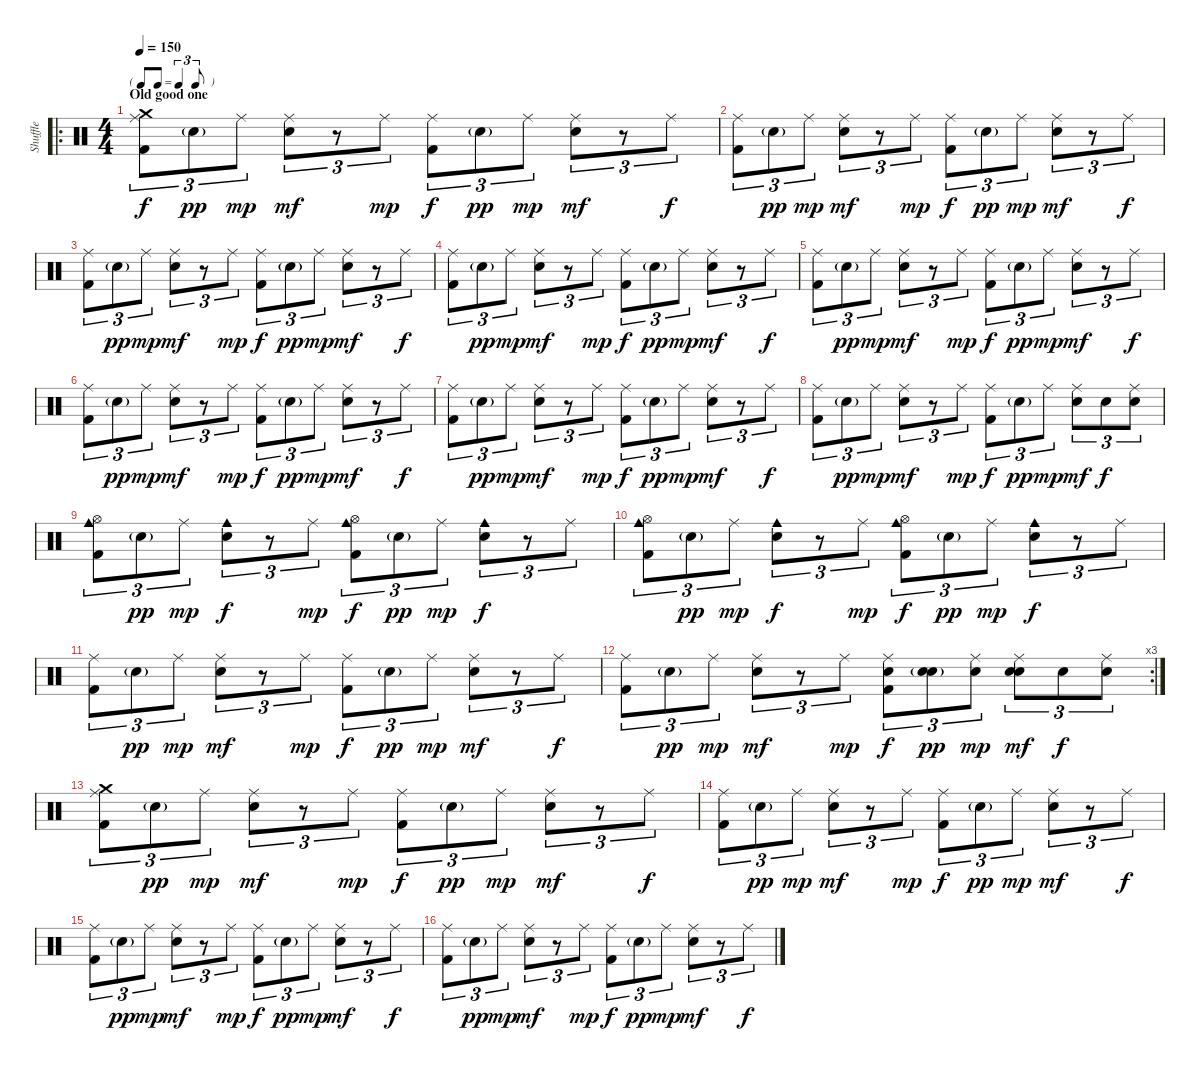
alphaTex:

\track ("Shuffle" "Shuffle") {instrument percussion}
\staff {score}
\articulation defaults
\ro
\ts (4 4)
\tf triplet8th
\section ("" "Old good one")
\tempo 150
\clef neutral
\ks c
("Ride (middle)" "Kick (hit) 2" "Crash medium (hit)").8{tu (3 2) dy f} "Snare (hit) 2"{g}.8{tu (3 2) dy pp} "Ride (middle)".8{tu (3 2) dy mp} ("Ride (middle)" "Snare (hit) 2").8{tu (3 2) dy mf} r.8{tu (3 2)} "Ride (middle)".8{tu (3 2) dy mp} ("Ride (middle)" "Kick (hit) 2").8{tu (3 2) dy f} "Snare (hit) 2"{g}.8{tu (3 2) dy pp} "Ride (middle)".8{tu (3 2) dy mp} ("Ride (middle)" "Snare (hit) 2").8{tu (3 2) dy mf} r.8{tu (3 2)} "Ride (middle)".8{tu (3 2) dy f} |
("Ride (middle)" "Kick (hit) 2").8{tu (3 2)} "Snare (hit) 2"{g}.8{tu (3 2) dy pp} "Ride (middle)".8{tu (3 2) dy mp} ("Ride (middle)" "Snare (hit) 2").8{tu (3 2) dy mf} r.8{tu (3 2)} "Ride (middle)".8{tu (3 2) dy mp} ("Ride (middle)" "Kick (hit) 2").8{tu (3 2) dy f} "Snare (hit) 2"{g}.8{tu (3 2) dy pp} "Ride (middle)".8{tu (3 2) dy mp} ("Ride (middle)" "Snare (hit) 2").8{tu (3 2) dy mf} r.8{tu (3 2)} "Ride (middle)".8{tu (3 2) dy f} |
("Ride (middle)" "Kick (hit) 2").8{tu (3 2)} "Snare (hit) 2"{g}.8{tu (3 2) dy pp} "Ride (middle)".8{tu (3 2) dy mp} ("Ride (middle)" "Snare (hit) 2").8{tu (3 2) dy mf} r.8{tu (3 2)} "Ride (middle)".8{tu (3 2) dy mp} ("Ride (middle)" "Kick (hit) 2").8{tu (3 2) dy f} "Snare (hit) 2"{g}.8{tu (3 2) dy pp} "Ride (middle)".8{tu (3 2) dy mp} ("Ride (middle)" "Snare (hit) 2").8{tu (3 2) dy mf} r.8{tu (3 2)} "Ride (middle)".8{tu (3 2) dy f} |
("Ride (middle)" "Kick (hit) 2").8{tu (3 2)} "Snare (hit) 2"{g}.8{tu (3 2) dy pp} "Ride (middle)".8{tu (3 2) dy mp} ("Ride (middle)" "Snare (hit) 2").8{tu (3 2) dy mf} r.8{tu (3 2)} "Ride (middle)".8{tu (3 2) dy mp} ("Ride (middle)" "Kick (hit) 2").8{tu (3 2) dy f} "Snare (hit) 2"{g}.8{tu (3 2) dy pp} "Ride (middle)".8{tu (3 2) dy mp} ("Ride (middle)" "Snare (hit) 2").8{tu (3 2) dy mf} r.8{tu (3 2)} "Ride (middle)".8{tu (3 2) dy f} |
("Ride (middle)" "Kick (hit) 2").8{tu (3 2)} "Snare (hit) 2"{g}.8{tu (3 2) dy pp} "Ride (middle)".8{tu (3 2) dy mp} ("Ride (middle)" "Snare (hit) 2").8{tu (3 2) dy mf} r.8{tu (3 2)} "Ride (middle)".8{tu (3 2) dy mp} ("Ride (middle)" "Kick (hit) 2").8{tu (3 2) dy f} "Snare (hit) 2"{g}.8{tu (3 2) dy pp} "Ride (middle)".8{tu (3 2) dy mp} ("Ride (middle)" "Snare (hit) 2").8{tu (3 2) dy mf} r.8{tu (3 2)} "Ride (middle)".8{tu (3 2) dy f} |
("Ride (middle)" "Kick (hit) 2").8{tu (3 2)} "Snare (hit) 2"{g}.8{tu (3 2) dy pp} "Ride (middle)".8{tu (3 2) dy mp} ("Ride (middle)" "Snare (hit) 2").8{tu (3 2) dy mf} r.8{tu (3 2)} "Ride (middle)".8{tu (3 2) dy mp} ("Ride (middle)" "Kick (hit) 2").8{tu (3 2) dy f} "Snare (hit) 2"{g}.8{tu (3 2) dy pp} "Ride (middle)".8{tu (3 2) dy mp} ("Ride (middle)" "Snare (hit) 2").8{tu (3 2) dy mf} r.8{tu (3 2)} "Ride (middle)".8{tu (3 2) dy f} |
("Ride (middle)" "Kick (hit) 2").8{tu (3 2)} "Snare (hit) 2"{g}.8{tu (3 2) dy pp} "Ride (middle)".8{tu (3 2) dy mp} ("Ride (middle)" "Snare (hit) 2").8{tu (3 2) dy mf} r.8{tu (3 2)} "Ride (middle)".8{tu (3 2) dy mp} ("Ride (middle)" "Kick (hit) 2").8{tu (3 2) dy f} "Snare (hit) 2"{g}.8{tu (3 2) dy pp} "Ride (middle)".8{tu (3 2) dy mp} ("Ride (middle)" "Snare (hit) 2").8{tu (3 2) dy mf} r.8{tu (3 2)} "Ride (middle)".8{tu (3 2) dy f} |
("Ride (middle)" "Kick (hit) 2").8{tu (3 2)} "Snare (hit) 2"{g}.8{tu (3 2) dy pp} "Ride (middle)".8{tu (3 2) dy mp} ("Ride (middle)" "Snare (hit) 2").8{tu (3 2) dy mf} r.8{tu (3 2)} "Ride (middle)".8{tu (3 2) dy mp} ("Ride (middle)" "Kick (hit) 2").8{tu (3 2) dy f} "Snare (hit) 2"{g}.8{tu (3 2) dy pp} "Ride (middle)".8{tu (3 2) dy mp} ("Ride (middle)" "Snare (hit) 2").8{tu (3 2) dy mf} "Snare (hit) 2".8{tu (3 2) dy f} ("Ride (middle)" "Snare (hit) 2").8{tu (3 2)} |
("Hi-Hat (open)" "Kick (hit) 2" "Cowbell medium (hit)").8{tu (3 2)} "Snare (hit) 2"{g}.8{tu (3 2) dy pp} "Ride (middle)".8{tu (3 2) dy mp} ("Snare (hit) 2" "Cowbell medium (hit)").8{tu (3 2) dy f} r.8{tu (3 2)} "Ride (middle)".8{tu (3 2) dy mp} ("Hi-Hat (open)" "Kick (hit) 2" "Cowbell medium (hit)").8{tu (3 2) dy f} "Snare (hit) 2"{g}.8{tu (3 2) dy pp} "Ride (middle)".8{tu (3 2) dy mp} ("Snare (hit) 2" "Cowbell medium (hit)").8{tu (3 2) dy f} r.8{tu (3 2)} "Ride (middle)".8{tu (3 2)} |
("Hi-Hat (open)" "Kick (hit) 2" "Cowbell medium (hit)").8{tu (3 2)} "Snare (hit) 2"{g}.8{tu (3 2) dy pp} "Ride (middle)".8{tu (3 2) dy mp} ("Snare (hit) 2" "Cowbell medium (hit)").8{tu (3 2) dy f} r.8{tu (3 2)} "Ride (middle)".8{tu (3 2) dy mp} ("Hi-Hat (open)" "Kick (hit) 2" "Cowbell medium (hit)").8{tu (3 2) dy f} "Snare (hit) 2"{g}.8{tu (3 2) dy pp} "Ride (middle)".8{tu (3 2) dy mp} ("Snare (hit) 2" "Cowbell medium (hit)").8{tu (3 2) dy f} r.8{tu (3 2)} "Ride (middle)".8{tu (3 2)} |
("Ride (middle)" "Kick (hit) 2").8{tu (3 2)} "Snare (hit) 2"{g}.8{tu (3 2) dy pp} "Ride (middle)".8{tu (3 2) dy mp} ("Ride (middle)" "Snare (hit) 2").8{tu (3 2) dy mf} r.8{tu (3 2)} "Ride (middle)".8{tu (3 2) dy mp} ("Ride (middle)" "Kick (hit) 2").8{tu (3 2) dy f} "Snare (hit) 2"{g}.8{tu (3 2) dy pp} "Ride (middle)".8{tu (3 2) dy mp} ("Ride (middle)" "Snare (hit) 2").8{tu (3 2) dy mf} r.8{tu (3 2)} "Ride (middle)".8{tu (3 2) dy f} |
\rc 3
("Ride (middle)" "Kick (hit) 2").8{tu (3 2)} "Snare (hit) 2"{g}.8{tu (3 2) dy pp} "Ride (middle)".8{tu (3 2) dy mp} ("Ride (middle)" "Snare (hit) 2").8{tu (3 2) dy mf} r.8{tu (3 2)} "Ride (middle)".8{tu (3 2) dy mp} ("Ride (middle)" "Kick (hit) 2" "Snare (hit) 2").8{tu (3 2) dy f} ("Snare (hit) 2"{g} "Snare (hit) 2").8{tu (3 2) dy pp} ("Ride (middle)" "Snare (hit) 2").8{tu (3 2) dy mp} ("Ride (middle)" "Snare (hit) 2" "Snare (hit) 2").8{tu (3 2) dy mf} "Snare (hit) 2".8{tu (3 2) dy f} ("Ride (middle)" "Snare (hit) 2").8{tu (3 2)} |
("Ride (middle)" "Kick (hit) 2" "Crash medium (hit)").8{tu (3 2)} "Snare (hit) 2"{g}.8{tu (3 2) dy pp} "Ride (middle)".8{tu (3 2) dy mp} ("Ride (middle)" "Snare (hit) 2").8{tu (3 2) dy mf} r.8{tu (3 2)} "Ride (middle)".8{tu (3 2) dy mp} ("Ride (middle)" "Kick (hit) 2").8{tu (3 2) dy f} "Snare (hit) 2"{g}.8{tu (3 2) dy pp} "Ride (middle)".8{tu (3 2) dy mp} ("Ride (middle)" "Snare (hit) 2").8{tu (3 2) dy mf} r.8{tu (3 2)} "Ride (middle)".8{tu (3 2) dy f} |
("Ride (middle)" "Kick (hit) 2").8{tu (3 2)} "Snare (hit) 2"{g}.8{tu (3 2) dy pp} "Ride (middle)".8{tu (3 2) dy mp} ("Ride (middle)" "Snare (hit) 2").8{tu (3 2) dy mf} r.8{tu (3 2)} "Ride (middle)".8{tu (3 2) dy mp} ("Ride (middle)" "Kick (hit) 2").8{tu (3 2) dy f} "Snare (hit) 2"{g}.8{tu (3 2) dy pp} "Ride (middle)".8{tu (3 2) dy mp} ("Ride (middle)" "Snare (hit) 2").8{tu (3 2) dy mf} r.8{tu (3 2)} "Ride (middle)".8{tu (3 2) dy f} |
("Ride (middle)" "Kick (hit) 2").8{tu (3 2)} "Snare (hit) 2"{g}.8{tu (3 2) dy pp} "Ride (middle)".8{tu (3 2) dy mp} ("Ride (middle)" "Snare (hit) 2").8{tu (3 2) dy mf} r.8{tu (3 2)} "Ride (middle)".8{tu (3 2) dy mp} ("Ride (middle)" "Kick (hit) 2").8{tu (3 2) dy f} "Snare (hit) 2"{g}.8{tu (3 2) dy pp} "Ride (middle)".8{tu (3 2) dy mp} ("Ride (middle)" "Snare (hit) 2").8{tu (3 2) dy mf} r.8{tu (3 2)} "Ride (middle)".8{tu (3 2) dy f} |
("Ride (middle)" "Kick (hit) 2").8{tu (3 2)} "Snare (hit) 2"{g}.8{tu (3 2) dy pp} "Ride (middle)".8{tu (3 2) dy mp} ("Ride (middle)" "Snare (hit) 2").8{tu (3 2) dy mf} r.8{tu (3 2)} "Ride (middle)".8{tu (3 2) dy mp} ("Ride (middle)" "Kick (hit) 2").8{tu (3 2) dy f} "Snare (hit) 2"{g}.8{tu (3 2) dy pp} "Ride (middle)".8{tu (3 2) dy mp} ("Ride (middle)" "Snare (hit) 2").8{tu (3 2) dy mf} r.8{tu (3 2)} "Ride (middle)".8{tu (3 2) dy f}
